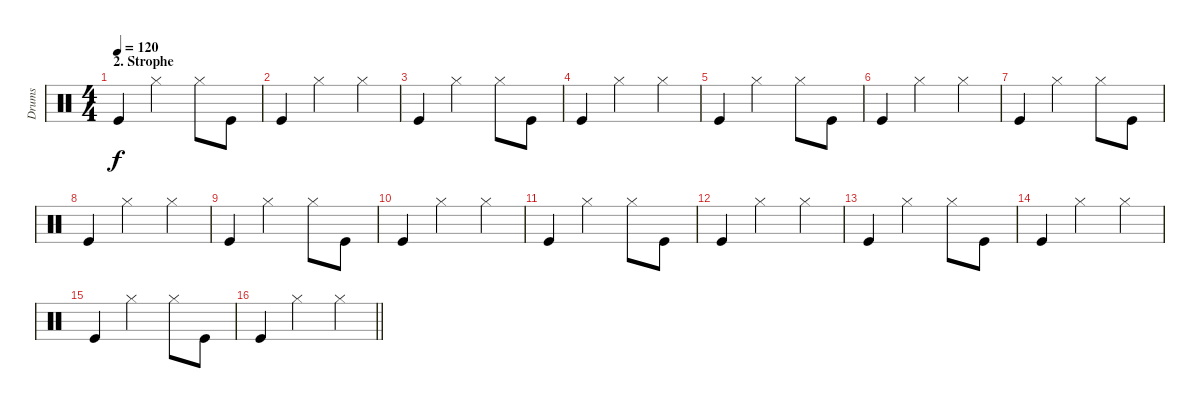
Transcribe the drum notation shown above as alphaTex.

\track ("Drums" "Drums") {instrument percussion}
\staff {score}
\articulation defaults
\ts (4 4)
\section ("" "2. Strophe")
\tempo 120
\clef neutral
\ks c "Kick (hit)".4{dy f} "Hi-Hat (closed)".2 "Hi-Hat (closed)".8 "Kick (hit)".8
|
"Kick (hit)".4 "Hi-Hat (closed)".2 "Hi-Hat (closed)".4 |
"Kick (hit)".4 "Hi-Hat (closed)".2 "Hi-Hat (closed)".8 "Kick (hit)".8 |
"Kick (hit)".4 "Hi-Hat (closed)".2 "Hi-Hat (closed)".4 |
"Kick (hit)".4 "Hi-Hat (closed)".2 "Hi-Hat (closed)".8 "Kick (hit)".8 |
"Kick (hit)".4 "Hi-Hat (closed)".2 "Hi-Hat (closed)".4 |
"Kick (hit)".4 "Hi-Hat (closed)".2 "Hi-Hat (closed)".8 "Kick (hit)".8 |
"Kick (hit)".4 "Hi-Hat (closed)".2 "Hi-Hat (closed)".4 |
"Kick (hit)".4 "Hi-Hat (closed)".2 "Hi-Hat (closed)".8 "Kick (hit)".8 |
"Kick (hit)".4 "Hi-Hat (closed)".2 "Hi-Hat (closed)".4 |
"Kick (hit)".4 "Hi-Hat (closed)".2 "Hi-Hat (closed)".8 "Kick (hit)".8 |
"Kick (hit)".4 "Hi-Hat (closed)".2 "Hi-Hat (closed)".4 |
"Kick (hit)".4 "Hi-Hat (closed)".2 "Hi-Hat (closed)".8 "Kick (hit)".8 |
"Kick (hit)".4 "Hi-Hat (closed)".2 "Hi-Hat (closed)".4 |
"Kick (hit)".4 "Hi-Hat (closed)".2 "Hi-Hat (closed)".8 "Kick (hit)".8 |
\barLineRight lightlight "Kick (hit)".4 "Hi-Hat (closed)".2 "Hi-Hat (closed)".4
